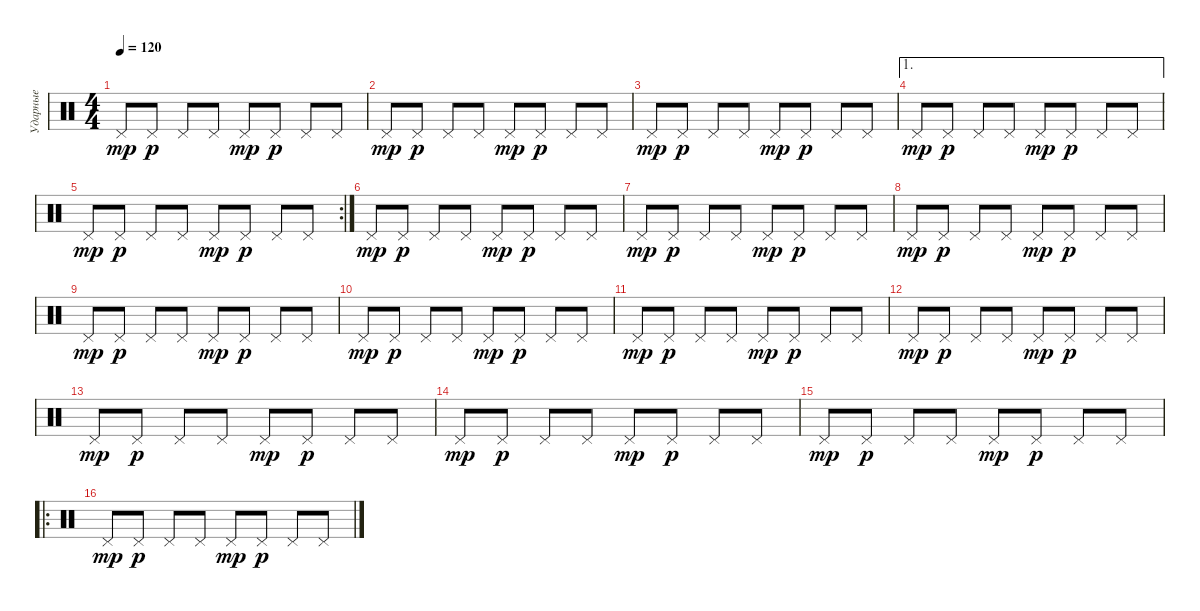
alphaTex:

\track ("Ударные" "Ударные") {instrument percussion}
\staff {score}
\articulation defaults
\ts (4 4)
\tempo 120
\clef neutral
\ks c "Pedal Hi-Hat (hit)".8{dy mp} "Pedal Hi-Hat (hit)".8{dy p} "Pedal Hi-Hat (hit)".8 "Pedal Hi-Hat (hit)".8 "Pedal Hi-Hat (hit)".8{dy mp} "Pedal Hi-Hat (hit)".8{dy p} "Pedal Hi-Hat (hit)".8 "Pedal Hi-Hat (hit)".8
|
"Pedal Hi-Hat (hit)".8{dy mp} "Pedal Hi-Hat (hit)".8{dy p} "Pedal Hi-Hat (hit)".8 "Pedal Hi-Hat (hit)".8 "Pedal Hi-Hat (hit)".8{dy mp} "Pedal Hi-Hat (hit)".8{dy p} "Pedal Hi-Hat (hit)".8 "Pedal Hi-Hat (hit)".8 |
"Pedal Hi-Hat (hit)".8{dy mp} "Pedal Hi-Hat (hit)".8{dy p} "Pedal Hi-Hat (hit)".8 "Pedal Hi-Hat (hit)".8 "Pedal Hi-Hat (hit)".8{dy mp} "Pedal Hi-Hat (hit)".8{dy p} "Pedal Hi-Hat (hit)".8 "Pedal Hi-Hat (hit)".8 |
\ae 1 "Pedal Hi-Hat (hit)".8{dy mp} "Pedal Hi-Hat (hit)".8{dy p} "Pedal Hi-Hat (hit)".8 "Pedal Hi-Hat (hit)".8 "Pedal Hi-Hat (hit)".8{dy mp} "Pedal Hi-Hat (hit)".8{dy p} "Pedal Hi-Hat (hit)".8 "Pedal Hi-Hat (hit)".8
|
\rc 2 "Pedal Hi-Hat (hit)".8{dy mp} "Pedal Hi-Hat (hit)".8{dy p} "Pedal Hi-Hat (hit)".8 "Pedal Hi-Hat (hit)".8 "Pedal Hi-Hat (hit)".8{dy mp} "Pedal Hi-Hat (hit)".8{dy p} "Pedal Hi-Hat (hit)".8 "Pedal Hi-Hat (hit)".8
|
"Pedal Hi-Hat (hit)".8{dy mp} "Pedal Hi-Hat (hit)".8{dy p} "Pedal Hi-Hat (hit)".8 "Pedal Hi-Hat (hit)".8 "Pedal Hi-Hat (hit)".8{dy mp} "Pedal Hi-Hat (hit)".8{dy p} "Pedal Hi-Hat (hit)".8 "Pedal Hi-Hat (hit)".8 |
"Pedal Hi-Hat (hit)".8{dy mp} "Pedal Hi-Hat (hit)".8{dy p} "Pedal Hi-Hat (hit)".8 "Pedal Hi-Hat (hit)".8 "Pedal Hi-Hat (hit)".8{dy mp} "Pedal Hi-Hat (hit)".8{dy p} "Pedal Hi-Hat (hit)".8 "Pedal Hi-Hat (hit)".8 |
"Pedal Hi-Hat (hit)".8{dy mp} "Pedal Hi-Hat (hit)".8{dy p} "Pedal Hi-Hat (hit)".8 "Pedal Hi-Hat (hit)".8 "Pedal Hi-Hat (hit)".8{dy mp} "Pedal Hi-Hat (hit)".8{dy p} "Pedal Hi-Hat (hit)".8 "Pedal Hi-Hat (hit)".8 |
"Pedal Hi-Hat (hit)".8{dy mp} "Pedal Hi-Hat (hit)".8{dy p} "Pedal Hi-Hat (hit)".8 "Pedal Hi-Hat (hit)".8 "Pedal Hi-Hat (hit)".8{dy mp} "Pedal Hi-Hat (hit)".8{dy p} "Pedal Hi-Hat (hit)".8 "Pedal Hi-Hat (hit)".8 |
"Pedal Hi-Hat (hit)".8{dy mp} "Pedal Hi-Hat (hit)".8{dy p} "Pedal Hi-Hat (hit)".8 "Pedal Hi-Hat (hit)".8 "Pedal Hi-Hat (hit)".8{dy mp} "Pedal Hi-Hat (hit)".8{dy p} "Pedal Hi-Hat (hit)".8 "Pedal Hi-Hat (hit)".8 |
"Pedal Hi-Hat (hit)".8{dy mp} "Pedal Hi-Hat (hit)".8{dy p} "Pedal Hi-Hat (hit)".8 "Pedal Hi-Hat (hit)".8 "Pedal Hi-Hat (hit)".8{dy mp} "Pedal Hi-Hat (hit)".8{dy p} "Pedal Hi-Hat (hit)".8 "Pedal Hi-Hat (hit)".8 |
"Pedal Hi-Hat (hit)".8{dy mp} "Pedal Hi-Hat (hit)".8{dy p} "Pedal Hi-Hat (hit)".8 "Pedal Hi-Hat (hit)".8 "Pedal Hi-Hat (hit)".8{dy mp} "Pedal Hi-Hat (hit)".8{dy p} "Pedal Hi-Hat (hit)".8 "Pedal Hi-Hat (hit)".8 |
"Pedal Hi-Hat (hit)".8{dy mp} "Pedal Hi-Hat (hit)".8{dy p} "Pedal Hi-Hat (hit)".8 "Pedal Hi-Hat (hit)".8 "Pedal Hi-Hat (hit)".8{dy mp} "Pedal Hi-Hat (hit)".8{dy p} "Pedal Hi-Hat (hit)".8 "Pedal Hi-Hat (hit)".8 |
"Pedal Hi-Hat (hit)".8{dy mp} "Pedal Hi-Hat (hit)".8{dy p} "Pedal Hi-Hat (hit)".8 "Pedal Hi-Hat (hit)".8 "Pedal Hi-Hat (hit)".8{dy mp} "Pedal Hi-Hat (hit)".8{dy p} "Pedal Hi-Hat (hit)".8 "Pedal Hi-Hat (hit)".8 |
"Pedal Hi-Hat (hit)".8{dy mp} "Pedal Hi-Hat (hit)".8{dy p} "Pedal Hi-Hat (hit)".8 "Pedal Hi-Hat (hit)".8 "Pedal Hi-Hat (hit)".8{dy mp} "Pedal Hi-Hat (hit)".8{dy p} "Pedal Hi-Hat (hit)".8 "Pedal Hi-Hat (hit)".8 |
\ro "Pedal Hi-Hat (hit)".8{dy mp} "Pedal Hi-Hat (hit)".8{dy p} "Pedal Hi-Hat (hit)".8 "Pedal Hi-Hat (hit)".8 "Pedal Hi-Hat (hit)".8{dy mp} "Pedal Hi-Hat (hit)".8{dy p} "Pedal Hi-Hat (hit)".8 "Pedal Hi-Hat (hit)".8
